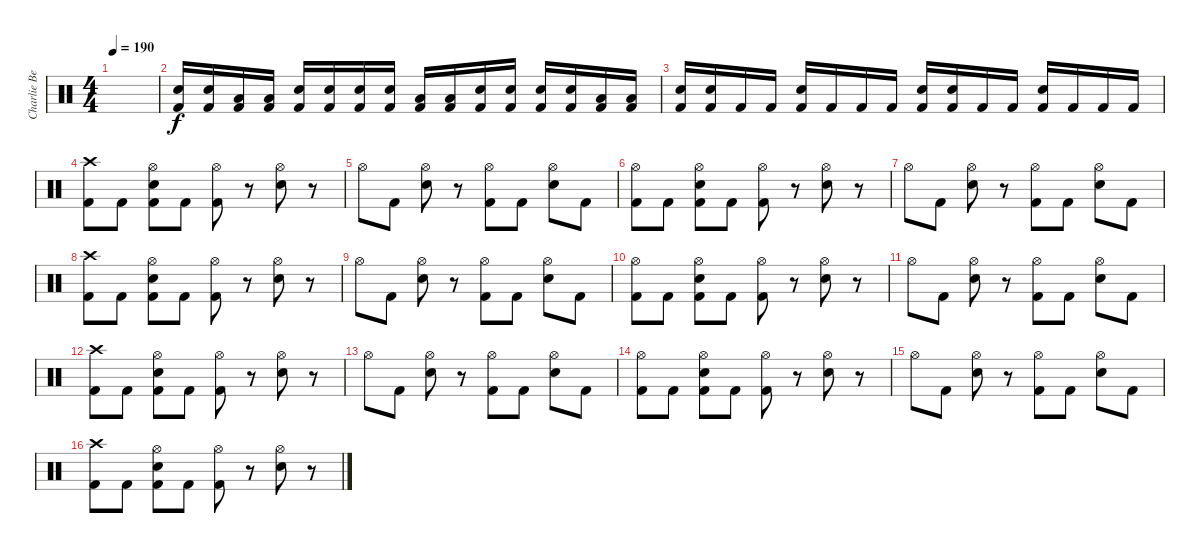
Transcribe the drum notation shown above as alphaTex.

\track ("Charlie Benante" "Charlie Be") {instrument percussion}
\staff {score}
\articulation defaults
\ts (4 4)
\tempo 190
\clef neutral
\ks c
|
("Kick (hit) 2" "Snare (hit) 2").16 ("Kick (hit) 2" "Snare (hit) 2").16 ("Kick (hit) 2" "Low Tom (hit)").16 ("Kick (hit) 2" "Low Tom (hit)").16 ("Kick (hit) 2" "Snare (hit) 2").16 ("Kick (hit) 2" "Snare (hit) 2").16 ("Kick (hit) 2" "Snare (hit) 2").16 ("Kick (hit) 2" "Snare (hit) 2").16 ("Kick (hit) 2" "Low Tom (hit)").16 ("Kick (hit) 2" "Low Tom (hit)").16 ("Kick (hit) 2" "Snare (hit) 2").16 ("Kick (hit) 2" "Snare (hit) 2").16 ("Kick (hit) 2" "Snare (hit) 2").16 ("Kick (hit) 2" "Snare (hit) 2").16 ("Kick (hit) 2" "Low Tom (hit)").16 ("Kick (hit) 2" "Low Tom (hit)").16 |
("Kick (hit) 2" "Snare (hit) 2").16 ("Kick (hit) 2" "Snare (hit) 2").16 "Kick (hit) 2".16 "Kick (hit) 2".16 ("Kick (hit) 2" "Snare (hit) 2").16 "Kick (hit) 2".16 "Kick (hit) 2".16 "Kick (hit) 2".16 ("Kick (hit) 2" "Snare (hit) 2").16 ("Kick (hit) 2" "Snare (hit) 2").16 "Kick (hit) 2".16 "Kick (hit) 2".16 ("Kick (hit) 2" "Snare (hit) 2").16 "Kick (hit) 2".16 "Kick (hit) 2".16 "Kick (hit) 2".16 |
("Kick (hit) 2" "Crash high (hit)").8 "Kick (hit) 2".8 ("Kick (hit) 2" "Hi-Hat (open)" "Snare (hit) 2").8 "Kick (hit) 2".8 ("Kick (hit) 2" "Hi-Hat (open)").8 r.8 ("Snare (hit) 2" "Hi-Hat (open)").8 r.8 |
"Hi-Hat (open)".8 "Kick (hit) 2".8 ("Snare (hit) 2" "Hi-Hat (open)").8 r.8 ("Kick (hit) 2" "Hi-Hat (open)").8 "Kick (hit) 2".8 ("Snare (hit) 2" "Hi-Hat (open)").8 "Kick (hit) 2".8 |
("Kick (hit) 2" "Hi-Hat (open)").8 "Kick (hit) 2".8 ("Kick (hit) 2" "Hi-Hat (open)" "Snare (hit) 2").8 "Kick (hit) 2".8 ("Kick (hit) 2" "Hi-Hat (open)").8 r.8 ("Snare (hit) 2" "Hi-Hat (open)").8 r.8 |
"Hi-Hat (open)".8 "Kick (hit) 2".8 ("Snare (hit) 2" "Hi-Hat (open)").8 r.8 ("Kick (hit) 2" "Hi-Hat (open)").8 "Kick (hit) 2".8 ("Snare (hit) 2" "Hi-Hat (open)").8 "Kick (hit) 2".8 |
("Kick (hit) 2" "Crash high (hit)").8 "Kick (hit) 2".8 ("Kick (hit) 2" "Hi-Hat (open)" "Snare (hit) 2").8 "Kick (hit) 2".8 ("Kick (hit) 2" "Hi-Hat (open)").8 r.8 ("Snare (hit) 2" "Hi-Hat (open)").8 r.8 |
"Hi-Hat (open)".8 "Kick (hit) 2".8 ("Snare (hit) 2" "Hi-Hat (open)").8 r.8 ("Kick (hit) 2" "Hi-Hat (open)").8 "Kick (hit) 2".8 ("Snare (hit) 2" "Hi-Hat (open)").8 "Kick (hit) 2".8 |
("Kick (hit) 2" "Hi-Hat (open)").8 "Kick (hit) 2".8 ("Kick (hit) 2" "Hi-Hat (open)" "Snare (hit) 2").8 "Kick (hit) 2".8 ("Kick (hit) 2" "Hi-Hat (open)").8 r.8 ("Snare (hit) 2" "Hi-Hat (open)").8 r.8 |
"Hi-Hat (open)".8 "Kick (hit) 2".8 ("Snare (hit) 2" "Hi-Hat (open)").8 r.8 ("Kick (hit) 2" "Hi-Hat (open)").8 "Kick (hit) 2".8 ("Snare (hit) 2" "Hi-Hat (open)").8 "Kick (hit) 2".8 |
("Kick (hit) 2" "Crash high (hit)").8 "Kick (hit) 2".8 ("Kick (hit) 2" "Hi-Hat (open)" "Snare (hit) 2").8 "Kick (hit) 2".8 ("Kick (hit) 2" "Hi-Hat (open)").8 r.8 ("Snare (hit) 2" "Hi-Hat (open)").8 r.8 |
"Hi-Hat (open)".8 "Kick (hit) 2".8 ("Snare (hit) 2" "Hi-Hat (open)").8 r.8 ("Kick (hit) 2" "Hi-Hat (open)").8 "Kick (hit) 2".8 ("Snare (hit) 2" "Hi-Hat (open)").8 "Kick (hit) 2".8 |
("Kick (hit) 2" "Hi-Hat (open)").8 "Kick (hit) 2".8 ("Kick (hit) 2" "Hi-Hat (open)" "Snare (hit) 2").8 "Kick (hit) 2".8 ("Kick (hit) 2" "Hi-Hat (open)").8 r.8 ("Snare (hit) 2" "Hi-Hat (open)").8 r.8 |
"Hi-Hat (open)".8 "Kick (hit) 2".8 ("Snare (hit) 2" "Hi-Hat (open)").8 r.8 ("Kick (hit) 2" "Hi-Hat (open)").8 "Kick (hit) 2".8 ("Snare (hit) 2" "Hi-Hat (open)").8 "Kick (hit) 2".8 |
("Kick (hit) 2" "Crash high (hit)").8 "Kick (hit) 2".8 ("Kick (hit) 2" "Hi-Hat (open)" "Snare (hit) 2").8 "Kick (hit) 2".8 ("Kick (hit) 2" "Hi-Hat (open)").8 r.8 ("Snare (hit) 2" "Hi-Hat (open)").8 r.8
